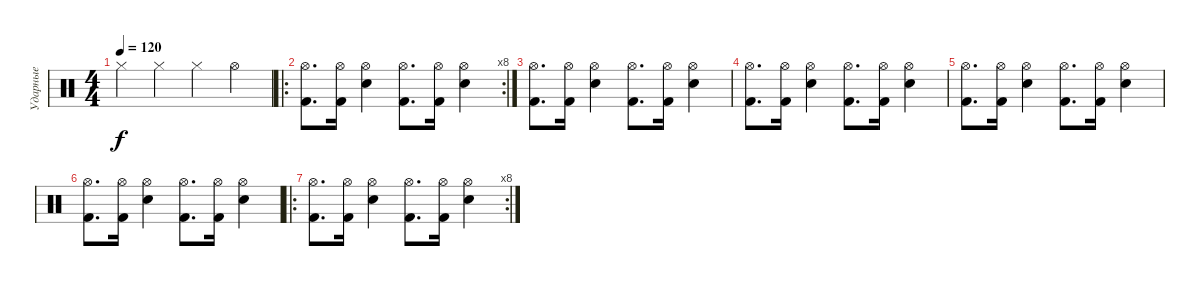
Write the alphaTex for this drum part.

\track ("Ударные" "Ударные") {instrument percussion}
\staff {score}
\articulation defaults
\ts (4 4)
\tempo 120
\clef neutral
\ks c "Hi-Hat (closed)".4{dy f} "Hi-Hat (closed)".4 "Hi-Hat (closed)".4 "Hi-Hat (open)".4
|
\ro
\rc 8
("Hi-Hat (open)" "Kick (hit) 2").8{d} ("Hi-Hat (open)" "Kick (hit) 2").16 ("Hi-Hat (open)" "Snare (hit) 2").4 ("Hi-Hat (open)" "Kick (hit) 2").8{d} ("Hi-Hat (open)" "Kick (hit) 2").16 ("Hi-Hat (open)" "Snare (hit) 2").4 |
("Hi-Hat (open)" "Kick (hit) 2").8{d} ("Hi-Hat (open)" "Kick (hit) 2").16 ("Hi-Hat (open)" "Snare (hit) 2").4 ("Hi-Hat (open)" "Kick (hit) 2").8{d} ("Hi-Hat (open)" "Kick (hit) 2").16 ("Hi-Hat (open)" "Snare (hit) 2").4 |
("Hi-Hat (open)" "Kick (hit) 2").8{d} ("Hi-Hat (open)" "Kick (hit) 2").16 ("Hi-Hat (open)" "Snare (hit) 2").4 ("Hi-Hat (open)" "Kick (hit) 2").8{d} ("Hi-Hat (open)" "Kick (hit) 2").16 ("Hi-Hat (open)" "Snare (hit) 2").4 |
("Hi-Hat (open)" "Kick (hit) 2").8{d} ("Hi-Hat (open)" "Kick (hit) 2").16 ("Hi-Hat (open)" "Snare (hit) 2").4 ("Hi-Hat (open)" "Kick (hit) 2").8{d} ("Hi-Hat (open)" "Kick (hit) 2").16 ("Hi-Hat (open)" "Snare (hit) 2").4 |
("Hi-Hat (open)" "Kick (hit) 2").8{d} ("Hi-Hat (open)" "Kick (hit) 2").16 ("Hi-Hat (open)" "Snare (hit) 2").4 ("Hi-Hat (open)" "Kick (hit) 2").8{d} ("Hi-Hat (open)" "Kick (hit) 2").16 ("Hi-Hat (open)" "Snare (hit) 2").4 |
\ro
\rc 8
("Hi-Hat (open)" "Kick (hit) 2").8{d} ("Hi-Hat (open)" "Kick (hit) 2").16 ("Hi-Hat (open)" "Snare (hit) 2").4 ("Hi-Hat (open)" "Kick (hit) 2").8{d} ("Hi-Hat (open)" "Kick (hit) 2").16 ("Hi-Hat (open)" "Snare (hit) 2").4
